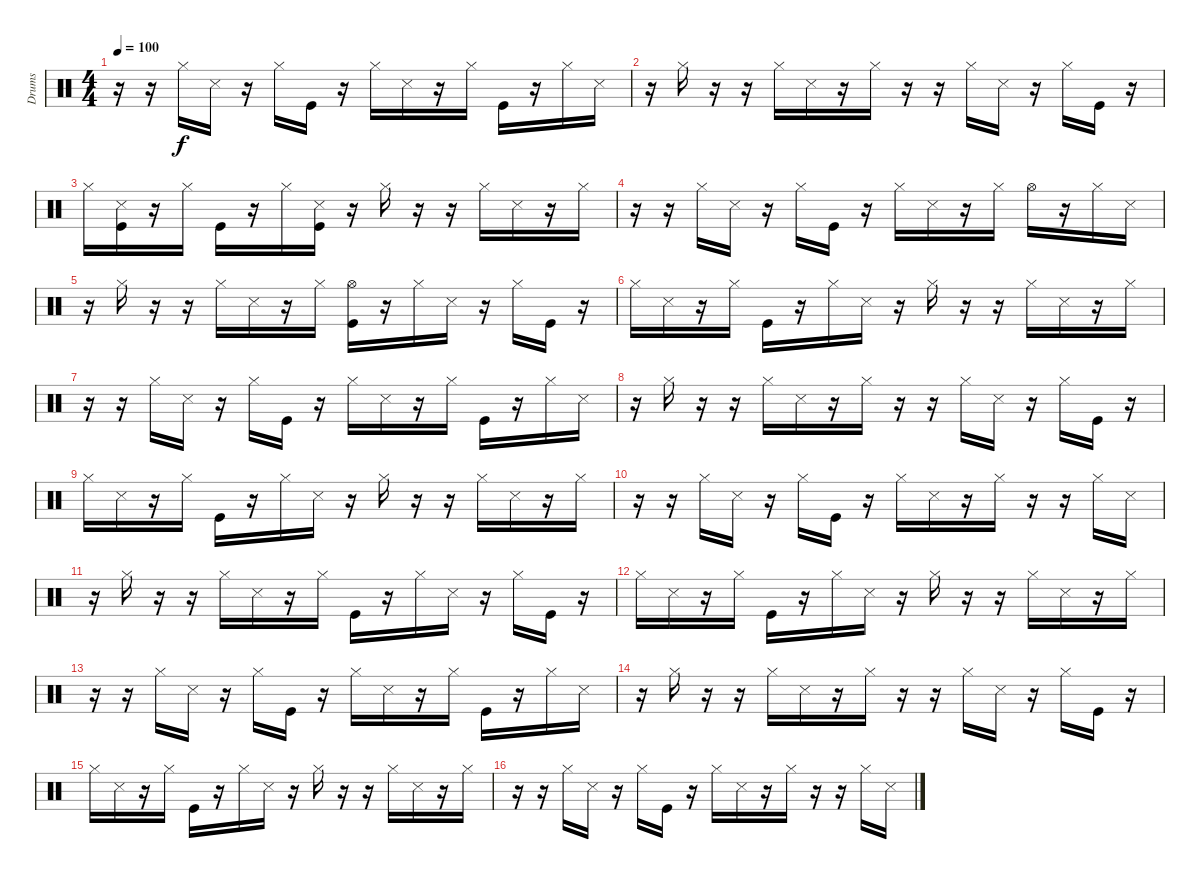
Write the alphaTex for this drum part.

\track ("Drums" "Drums") {instrument percussion}
\staff {score}
\articulation defaults
\ts (4 4)
\tempo 100
\clef neutral
\ks c
r.16{dy f} r.16 "Hi-Hat (closed)".16 "Snare (side stick) 3".16 r.16 "Hi-Hat (closed)".16 "Kick (hit)".16 r.16 "Hi-Hat (closed)".16 "Snare (side stick) 3".16 r.16 "Hi-Hat (closed)".16 "Kick (hit)".16 r.16 "Hi-Hat (closed)".16 "Snare (side stick) 3".16 |
r.16 "Hi-Hat (closed)".16 r.16 r.16 "Hi-Hat (closed)".16 "Snare (side stick) 3".16 r.16 "Hi-Hat (closed)".16 r.16 r.16 "Hi-Hat (closed)".16 "Snare (side stick) 3".16 r.16 "Hi-Hat (closed)".16 "Kick (hit)".16 r.16 |
"Hi-Hat (closed)".16 ("Snare (side stick) 3" "Kick (hit)").16 r.16 "Hi-Hat (closed)".16 "Kick (hit)".16 r.16 "Hi-Hat (closed)".16 ("Snare (side stick) 3" "Kick (hit)").16 r.16 "Hi-Hat (closed)".16 r.16 r.16 "Hi-Hat (closed)".16 "Snare (side stick) 3".16 r.16 "Hi-Hat (closed)".16 |
r.16 r.16 "Hi-Hat (closed)".16 "Snare (side stick) 3".16 r.16 "Hi-Hat (closed)".16 "Kick (hit)".16 r.16 "Hi-Hat (closed)".16 "Snare (side stick) 3".16 r.16 "Hi-Hat (closed)".16 "Hi-Hat (open)".16 r.16 "Hi-Hat (closed)".16 "Snare (side stick) 3".16 |
r.16 "Hi-Hat (closed)".16 r.16 r.16 "Hi-Hat (closed)".16 "Snare (side stick) 3".16 r.16 "Hi-Hat (closed)".16 ("Hi-Hat (open)" "Kick (hit)").16 r.16 "Hi-Hat (closed)".16 "Snare (side stick) 3".16 r.16 "Hi-Hat (closed)".16 "Kick (hit)".16 r.16 |
"Hi-Hat (closed)".16 "Snare (side stick) 3".16 r.16 "Hi-Hat (closed)".16 "Kick (hit)".16 r.16 "Hi-Hat (closed)".16 "Snare (side stick) 3".16 r.16 "Hi-Hat (closed)".16 r.16 r.16 "Hi-Hat (closed)".16 "Snare (side stick) 3".16 r.16 "Hi-Hat (closed)".16 |
r.16 r.16 "Hi-Hat (closed)".16 "Snare (side stick) 3".16 r.16 "Hi-Hat (closed)".16 "Kick (hit)".16 r.16 "Hi-Hat (closed)".16 "Snare (side stick) 3".16 r.16 "Hi-Hat (closed)".16 "Kick (hit)".16 r.16 "Hi-Hat (closed)".16 "Snare (side stick) 3".16 |
r.16 "Hi-Hat (closed)".16 r.16 r.16 "Hi-Hat (closed)".16 "Snare (side stick) 3".16 r.16 "Hi-Hat (closed)".16 r.16 r.16 "Hi-Hat (closed)".16 "Snare (side stick) 3".16 r.16 "Hi-Hat (closed)".16 "Kick (hit)".16 r.16 |
"Hi-Hat (closed)".16 "Snare (side stick) 3".16 r.16 "Hi-Hat (closed)".16 "Kick (hit)".16 r.16 "Hi-Hat (closed)".16 "Snare (side stick) 3".16 r.16 "Hi-Hat (closed)".16 r.16 r.16 "Hi-Hat (closed)".16 "Snare (side stick) 3".16 r.16 "Hi-Hat (closed)".16 |
r.16 r.16 "Hi-Hat (closed)".16 "Snare (side stick) 3".16 r.16 "Hi-Hat (closed)".16 "Kick (hit)".16 r.16 "Hi-Hat (closed)".16 "Snare (side stick) 3".16 r.16 "Hi-Hat (closed)".16 r.16 r.16 "Hi-Hat (closed)".16 "Snare (side stick) 3".16 |
r.16 "Hi-Hat (closed)".16 r.16 r.16 "Hi-Hat (closed)".16 "Snare (side stick) 3".16 r.16 "Hi-Hat (closed)".16 "Kick (hit)".16 r.16 "Hi-Hat (closed)".16 "Snare (side stick) 3".16 r.16 "Hi-Hat (closed)".16 "Kick (hit)".16 r.16 |
"Hi-Hat (closed)".16 "Snare (side stick) 3".16 r.16 "Hi-Hat (closed)".16 "Kick (hit)".16 r.16 "Hi-Hat (closed)".16 "Snare (side stick) 3".16 r.16 "Hi-Hat (closed)".16 r.16 r.16 "Hi-Hat (closed)".16 "Snare (side stick) 3".16 r.16 "Hi-Hat (closed)".16 |
r.16 r.16 "Hi-Hat (closed)".16 "Snare (side stick) 3".16 r.16 "Hi-Hat (closed)".16 "Kick (hit)".16 r.16 "Hi-Hat (closed)".16 "Snare (side stick) 3".16 r.16 "Hi-Hat (closed)".16 "Kick (hit)".16 r.16 "Hi-Hat (closed)".16 "Snare (side stick) 3".16 |
r.16 "Hi-Hat (closed)".16 r.16 r.16 "Hi-Hat (closed)".16 "Snare (side stick) 3".16 r.16 "Hi-Hat (closed)".16 r.16 r.16 "Hi-Hat (closed)".16 "Snare (side stick) 3".16 r.16 "Hi-Hat (closed)".16 "Kick (hit)".16 r.16 |
"Hi-Hat (closed)".16 "Snare (side stick) 3".16 r.16 "Hi-Hat (closed)".16 "Kick (hit)".16 r.16 "Hi-Hat (closed)".16 "Snare (side stick) 3".16 r.16 "Hi-Hat (closed)".16 r.16 r.16 "Hi-Hat (closed)".16 "Snare (side stick) 3".16 r.16 "Hi-Hat (closed)".16 |
r.16 r.16 "Hi-Hat (closed)".16 "Snare (side stick) 3".16 r.16 "Hi-Hat (closed)".16 "Kick (hit)".16 r.16 "Hi-Hat (closed)".16 "Snare (side stick) 3".16 r.16 "Hi-Hat (closed)".16 r.16 r.16 "Hi-Hat (closed)".16 "Snare (side stick) 3".16
